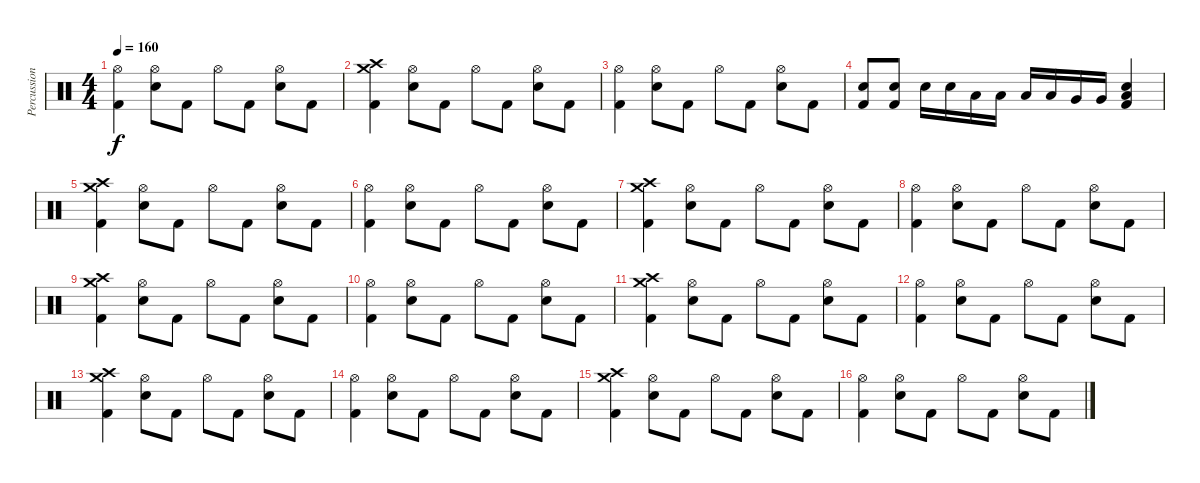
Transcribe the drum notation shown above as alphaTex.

\track ("Percussion" "Percussion") {instrument percussion}
\staff {score}
\articulation defaults
\ts (4 4)
\tempo 160
\clef neutral
\ks c
("Hi-Hat (open)" "Kick (hit) 2").4{dy f} ("Hi-Hat (open)" "Electric Snare (hit)").8 "Kick (hit) 2".8 "Hi-Hat (open)".8 "Kick (hit) 2".8 ("Hi-Hat (open)" "Electric Snare (hit)").8 "Kick (hit) 2".8 |
("Crash medium (hit)" "Crash high (hit)" "Kick (hit) 2").4 ("Hi-Hat (open)" "Electric Snare (hit)").8 "Kick (hit) 2".8 "Hi-Hat (open)".8 "Kick (hit) 2".8 ("Hi-Hat (open)" "Electric Snare (hit)").8 "Kick (hit) 2".8 |
("Hi-Hat (open)" "Kick (hit) 2").4 ("Hi-Hat (open)" "Electric Snare (hit)").8 "Kick (hit) 2".8 "Hi-Hat (open)".8 "Kick (hit) 2".8 ("Hi-Hat (open)" "Electric Snare (hit)").8 "Kick (hit) 2".8 |
("Electric Snare (hit)" "Kick (hit) 2").8 ("Electric Snare (hit)" "Kick (hit) 2").8 "Electric Snare (hit)".16 "Electric Snare (hit)".16 "Low Tom (hit)".16 "Low Tom (hit)".16 "Low Tom (hit)".16 "Low Tom (hit)".16 "Very Low Tom (hit)".16 "Very Low Tom (hit)".16 ("Electric Snare (hit)" "Low Floor Tom (hit)" "Kick (hit) 2").4 |
("Crash medium (hit)" "Crash high (hit)" "Kick (hit) 2").4 ("Hi-Hat (open)" "Electric Snare (hit)").8 "Kick (hit) 2".8 "Hi-Hat (open)".8 "Kick (hit) 2".8 ("Hi-Hat (open)" "Electric Snare (hit)").8 "Kick (hit) 2".8 |
("Hi-Hat (open)" "Kick (hit) 2").4 ("Hi-Hat (open)" "Electric Snare (hit)").8 "Kick (hit) 2".8 "Hi-Hat (open)".8 "Kick (hit) 2".8 ("Hi-Hat (open)" "Electric Snare (hit)").8 "Kick (hit) 2".8 |
("Crash medium (hit)" "Crash high (hit)" "Kick (hit) 2").4 ("Hi-Hat (open)" "Electric Snare (hit)").8 "Kick (hit) 2".8 "Hi-Hat (open)".8 "Kick (hit) 2".8 ("Hi-Hat (open)" "Electric Snare (hit)").8 "Kick (hit) 2".8 |
("Hi-Hat (open)" "Kick (hit) 2").4 ("Hi-Hat (open)" "Electric Snare (hit)").8 "Kick (hit) 2".8 "Hi-Hat (open)".8 "Kick (hit) 2".8 ("Hi-Hat (open)" "Electric Snare (hit)").8 "Kick (hit) 2".8 |
("Crash medium (hit)" "Crash high (hit)" "Kick (hit) 2").4 ("Hi-Hat (open)" "Electric Snare (hit)").8 "Kick (hit) 2".8 "Hi-Hat (open)".8 "Kick (hit) 2".8 ("Hi-Hat (open)" "Electric Snare (hit)").8 "Kick (hit) 2".8 |
("Hi-Hat (open)" "Kick (hit) 2").4 ("Hi-Hat (open)" "Electric Snare (hit)").8 "Kick (hit) 2".8 "Hi-Hat (open)".8 "Kick (hit) 2".8 ("Hi-Hat (open)" "Electric Snare (hit)").8 "Kick (hit) 2".8 |
("Crash medium (hit)" "Crash high (hit)" "Kick (hit) 2").4 ("Hi-Hat (open)" "Electric Snare (hit)").8 "Kick (hit) 2".8 "Hi-Hat (open)".8 "Kick (hit) 2".8 ("Hi-Hat (open)" "Electric Snare (hit)").8 "Kick (hit) 2".8 |
("Hi-Hat (open)" "Kick (hit) 2").4 ("Hi-Hat (open)" "Electric Snare (hit)").8 "Kick (hit) 2".8 "Hi-Hat (open)".8 "Kick (hit) 2".8 ("Hi-Hat (open)" "Electric Snare (hit)").8 "Kick (hit) 2".8 |
("Crash medium (hit)" "Crash high (hit)" "Kick (hit) 2").4 ("Hi-Hat (open)" "Electric Snare (hit)").8 "Kick (hit) 2".8 "Hi-Hat (open)".8 "Kick (hit) 2".8 ("Hi-Hat (open)" "Electric Snare (hit)").8 "Kick (hit) 2".8 |
("Hi-Hat (open)" "Kick (hit) 2").4 ("Hi-Hat (open)" "Electric Snare (hit)").8 "Kick (hit) 2".8 "Hi-Hat (open)".8 "Kick (hit) 2".8 ("Hi-Hat (open)" "Electric Snare (hit)").8 "Kick (hit) 2".8 |
("Crash medium (hit)" "Crash high (hit)" "Kick (hit) 2").4 ("Hi-Hat (open)" "Electric Snare (hit)").8 "Kick (hit) 2".8 "Hi-Hat (open)".8 "Kick (hit) 2".8 ("Hi-Hat (open)" "Electric Snare (hit)").8 "Kick (hit) 2".8 |
("Hi-Hat (open)" "Kick (hit) 2").4 ("Hi-Hat (open)" "Electric Snare (hit)").8 "Kick (hit) 2".8 "Hi-Hat (open)".8 "Kick (hit) 2".8 ("Hi-Hat (open)" "Electric Snare (hit)").8 "Kick (hit) 2".8
